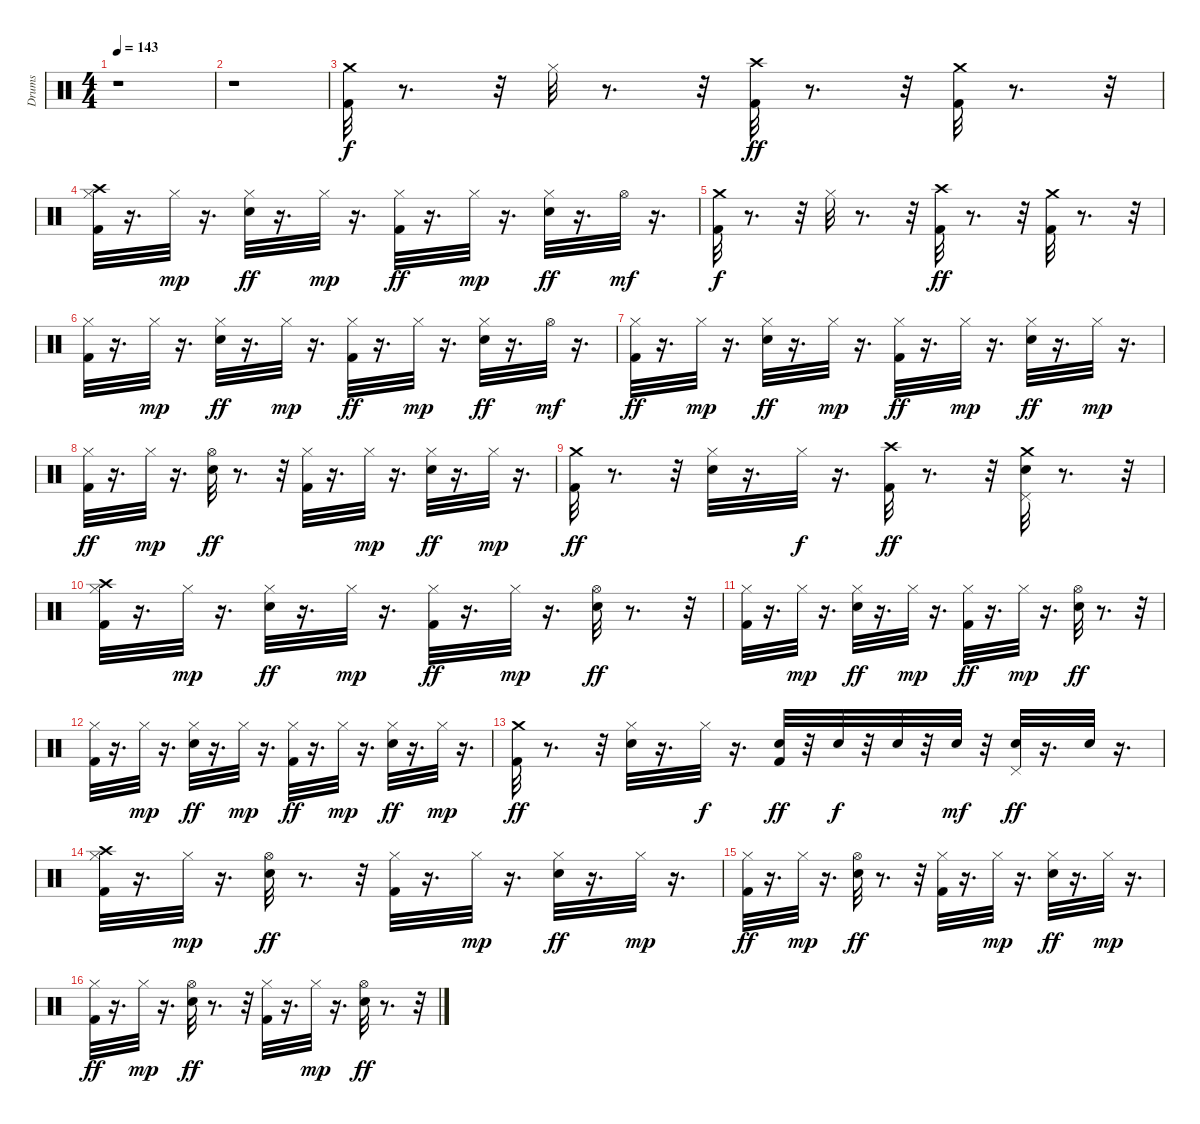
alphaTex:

\track ("Drums" "Drums") {instrument percussion}
\staff {score}
\articulation defaults
\ts (4 4)
\tempo 143
\clef neutral
\ks c
r.1{dy f} |
r.1 |
("Kick (hit) 2" "Crash medium (hit)").32 r.8{d} r.32 "Hi-Hat (closed)".32 r.8{d} r.32 ("Crash high (hit)" "Kick (hit) 2").32{dy ff} r.8{d} r.32 ("Kick (hit) 2" "Crash medium (hit)").32 r.8{d} r.32 |
("Kick (hit) 2" "Crash high (hit)" "Hi-Hat (closed)").32 r.16{d} "Hi-Hat (closed)".32{dy mp} r.16{d} ("Snare (hit) 2" "Hi-Hat (closed)").32{dy ff} r.16{d} "Hi-Hat (closed)".32{dy mp} r.16{d} ("Kick (hit) 2" "Hi-Hat (closed)").32{dy ff} r.16{d} "Hi-Hat (closed)".32{dy mp} r.16{d} ("Snare (hit) 2" "Hi-Hat (closed)").32{dy ff} r.16{d} "Hi-Hat (open)".32{dy mf} r.16{d} |
("Kick (hit) 2" "Crash medium (hit)").32{dy f} r.8{d} r.32 "Hi-Hat (closed)".32 r.8{d} r.32 ("Crash high (hit)" "Kick (hit) 2").32{dy ff} r.8{d} r.32 ("Kick (hit) 2" "Crash medium (hit)").32 r.8{d} r.32 |
("Kick (hit) 2" "Hi-Hat (closed)").32 r.16{d} "Hi-Hat (closed)".32{dy mp} r.16{d} ("Snare (hit) 2" "Hi-Hat (closed)").32{dy ff} r.16{d} "Hi-Hat (closed)".32{dy mp} r.16{d} ("Kick (hit) 2" "Hi-Hat (closed)").32{dy ff} r.16{d} "Hi-Hat (closed)".32{dy mp} r.16{d} ("Snare (hit) 2" "Hi-Hat (closed)").32{dy ff} r.16{d} "Hi-Hat (open)".32{dy mf} r.16{d} |
("Kick (hit) 2" "Hi-Hat (closed)").32{dy ff} r.16{d} "Hi-Hat (closed)".32{dy mp} r.16{d} ("Snare (hit) 2" "Hi-Hat (closed)").32{dy ff} r.16{d} "Hi-Hat (closed)".32{dy mp} r.16{d} ("Kick (hit) 2" "Hi-Hat (closed)").32{dy ff} r.16{d} "Hi-Hat (closed)".32{dy mp} r.16{d} ("Snare (hit) 2" "Hi-Hat (closed)").32{dy ff} r.16{d} "Hi-Hat (closed)".32{dy mp} r.16{d} |
("Kick (hit) 2" "Hi-Hat (closed)").32{dy ff} r.16{d} "Hi-Hat (closed)".32{dy mp} r.16{d} ("Snare (hit) 2" "Hi-Hat (open)").32{dy ff} r.8{d} r.32 ("Kick (hit) 2" "Hi-Hat (closed)").32 r.16{d} "Hi-Hat (closed)".32{dy mp} r.16{d} ("Snare (hit) 2" "Hi-Hat (closed)").32{dy ff} r.16{d} "Hi-Hat (closed)".32{dy mp} r.16{d} |
("Kick (hit) 2" "Crash medium (hit)").32{dy ff} r.8{d} r.32 ("Snare (hit) 2" "Hi-Hat (closed)").32 r.16{d} "Hi-Hat (closed)".32{dy f} r.16{d} ("Kick (hit) 2" "Crash high (hit)").32{dy ff} r.8{d} r.32 ("Crash medium (hit)" "Snare (hit) 2" "Pedal Hi-Hat (hit)").32 r.8{d} r.32 |
("Kick (hit) 2" "Crash high (hit)" "Hi-Hat (closed)").32 r.16{d} "Hi-Hat (closed)".32{dy mp} r.16{d} ("Snare (hit) 2" "Hi-Hat (closed)").32{dy ff} r.16{d} "Hi-Hat (closed)".32{dy mp} r.16{d} ("Kick (hit) 2" "Hi-Hat (closed)").32{dy ff} r.16{d} "Hi-Hat (closed)".32{dy mp} r.16{d} ("Snare (hit) 2" "Hi-Hat (open)").32{dy ff} r.8{d} r.32 |
("Kick (hit) 2" "Hi-Hat (closed)").32 r.16{d} "Hi-Hat (closed)".32{dy mp} r.16{d} ("Snare (hit) 2" "Hi-Hat (closed)").32{dy ff} r.16{d} "Hi-Hat (closed)".32{dy mp} r.16{d} ("Kick (hit) 2" "Hi-Hat (closed)").32{dy ff} r.16{d} "Hi-Hat (closed)".32{dy mp} r.16{d} ("Snare (hit) 2" "Hi-Hat (open)").32{dy ff} r.8{d} r.32 |
("Kick (hit) 2" "Hi-Hat (closed)").32 r.16{d} "Hi-Hat (closed)".32{dy mp} r.16{d} ("Snare (hit) 2" "Hi-Hat (closed)").32{dy ff} r.16{d} "Hi-Hat (closed)".32{dy mp} r.16{d} ("Kick (hit) 2" "Hi-Hat (closed)").32{dy ff} r.16{d} "Hi-Hat (closed)".32{dy mp} r.16{d} ("Snare (hit) 2" "Hi-Hat (closed)").32{dy ff} r.16{d} "Hi-Hat (closed)".32{dy mp} r.16{d} |
("Kick (hit) 2" "Crash medium (hit)").32{dy ff} r.8{d} r.32 ("Snare (hit) 2" "Hi-Hat (closed)").32 r.16{d} "Hi-Hat (closed)".32{dy f} r.16{d} ("Kick (hit) 2" "Snare (hit) 2").32{dy ff} r.32 "Snare (hit) 2".32{dy f} r.32 "Snare (hit) 2".32 r.32 "Snare (hit) 2".32{dy mf} r.32 ("Snare (hit) 2" "Pedal Hi-Hat (hit)").32{dy ff} r.16{d} "Snare (hit) 2".32 r.16{d} |
("Kick (hit) 2" "Crash high (hit)" "Hi-Hat (closed)").32 r.16{d} "Hi-Hat (closed)".32{dy mp} r.16{d} ("Snare (hit) 2" "Hi-Hat (open)").32{dy ff} r.8{d} r.32 ("Kick (hit) 2" "Hi-Hat (closed)").32 r.16{d} "Hi-Hat (closed)".32{dy mp} r.16{d} ("Snare (hit) 2" "Hi-Hat (closed)").32{dy ff} r.16{d} "Hi-Hat (closed)".32{dy mp} r.16{d} |
("Kick (hit) 2" "Hi-Hat (closed)").32{dy ff} r.16{d} "Hi-Hat (closed)".32{dy mp} r.16{d} ("Snare (hit) 2" "Hi-Hat (open)").32{dy ff} r.8{d} r.32 ("Kick (hit) 2" "Hi-Hat (closed)").32 r.16{d} "Hi-Hat (closed)".32{dy mp} r.16{d} ("Snare (hit) 2" "Hi-Hat (closed)").32{dy ff} r.16{d} "Hi-Hat (closed)".32{dy mp} r.16{d} |
("Kick (hit) 2" "Hi-Hat (closed)").32{dy ff} r.16{d} "Hi-Hat (closed)".32{dy mp} r.16{d} ("Snare (hit) 2" "Hi-Hat (open)").32{dy ff} r.8{d} r.32 ("Kick (hit) 2" "Hi-Hat (closed)").32 r.16{d} "Hi-Hat (closed)".32{dy mp} r.16{d} ("Snare (hit) 2" "Hi-Hat (open)").32{dy ff} r.8{d} r.32
